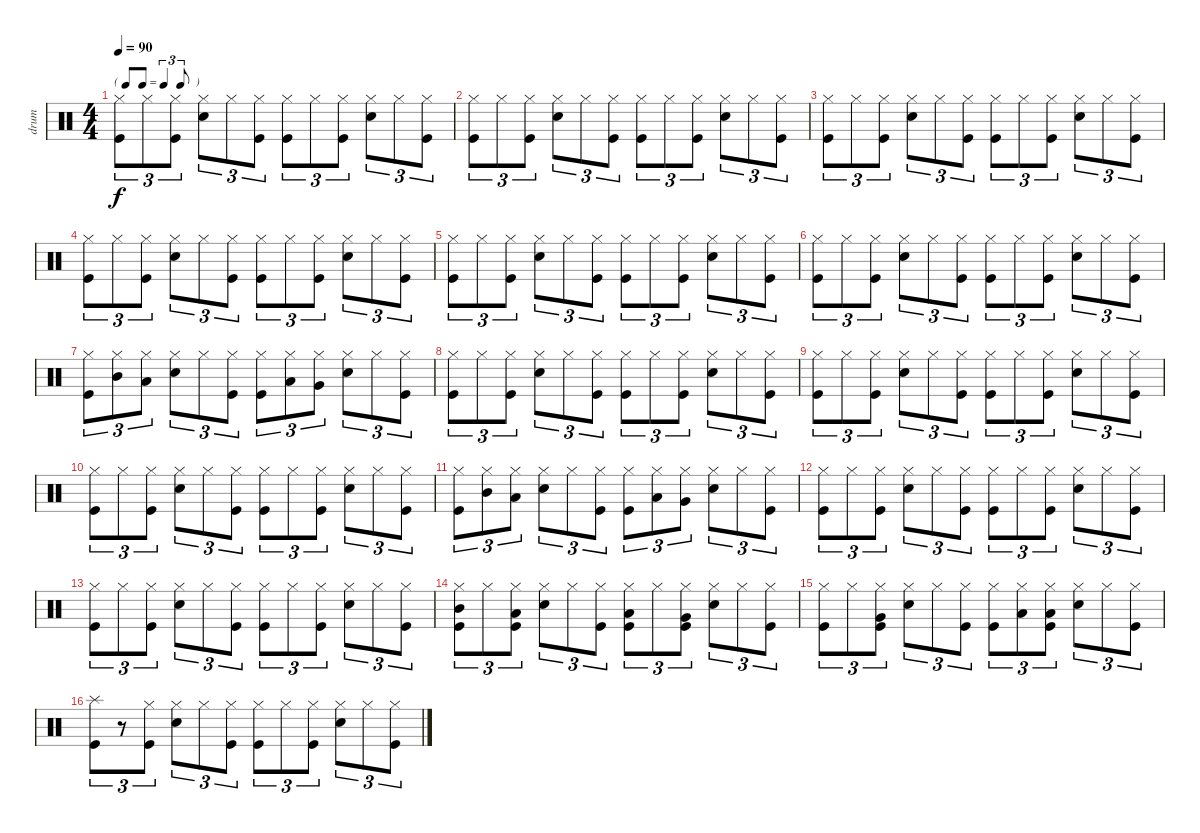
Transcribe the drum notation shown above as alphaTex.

\track ("drum" "drum") {instrument percussion}
\staff {score}
\articulation defaults
\ts (4 4)
\tf triplet8th
\tempo 90
\clef neutral
\ks c
("Hi-Hat (closed)" "Kick (hit)").8{tu (3 2) dy f} "Hi-Hat (closed)".8{tu (3 2)} ("Hi-Hat (closed)" "Kick (hit)").8{tu (3 2)} ("Hi-Hat (closed)" "Snare (hit) 2").8{tu (3 2)} "Hi-Hat (closed)".8{tu (3 2)} ("Hi-Hat (closed)" "Kick (hit)").8{tu (3 2)} ("Hi-Hat (closed)" "Kick (hit)").8{tu (3 2)} "Hi-Hat (closed)".8{tu (3 2)} ("Hi-Hat (closed)" "Kick (hit)").8{tu (3 2)} ("Hi-Hat (closed)" "Snare (hit) 2").8{tu (3 2)} "Hi-Hat (closed)".8{tu (3 2)} ("Hi-Hat (closed)" "Kick (hit)").8{tu (3 2)} |
("Hi-Hat (closed)" "Kick (hit)").8{tu (3 2)} "Hi-Hat (closed)".8{tu (3 2)} ("Hi-Hat (closed)" "Kick (hit)").8{tu (3 2)} ("Hi-Hat (closed)" "Snare (hit) 2").8{tu (3 2)} "Hi-Hat (closed)".8{tu (3 2)} ("Hi-Hat (closed)" "Kick (hit)").8{tu (3 2)} ("Hi-Hat (closed)" "Kick (hit)").8{tu (3 2)} "Hi-Hat (closed)".8{tu (3 2)} ("Hi-Hat (closed)" "Kick (hit)").8{tu (3 2)} ("Hi-Hat (closed)" "Snare (hit) 2").8{tu (3 2)} "Hi-Hat (closed)".8{tu (3 2)} ("Hi-Hat (closed)" "Kick (hit)").8{tu (3 2)} |
("Hi-Hat (closed)" "Kick (hit)").8{tu (3 2)} "Hi-Hat (closed)".8{tu (3 2)} ("Hi-Hat (closed)" "Kick (hit)").8{tu (3 2)} ("Hi-Hat (closed)" "Snare (hit) 2").8{tu (3 2)} "Hi-Hat (closed)".8{tu (3 2)} ("Hi-Hat (closed)" "Kick (hit)").8{tu (3 2)} ("Hi-Hat (closed)" "Kick (hit)").8{tu (3 2)} "Hi-Hat (closed)".8{tu (3 2)} ("Hi-Hat (closed)" "Kick (hit)").8{tu (3 2)} ("Hi-Hat (closed)" "Snare (hit) 2").8{tu (3 2)} "Hi-Hat (closed)".8{tu (3 2)} ("Hi-Hat (closed)" "Kick (hit)").8{tu (3 2)} |
("Hi-Hat (closed)" "Kick (hit)").8{tu (3 2)} "Hi-Hat (closed)".8{tu (3 2)} ("Hi-Hat (closed)" "Kick (hit)").8{tu (3 2)} ("Hi-Hat (closed)" "Snare (hit) 2").8{tu (3 2)} "Hi-Hat (closed)".8{tu (3 2)} ("Hi-Hat (closed)" "Kick (hit)").8{tu (3 2)} ("Hi-Hat (closed)" "Kick (hit)").8{tu (3 2)} "Hi-Hat (closed)".8{tu (3 2)} ("Hi-Hat (closed)" "Kick (hit)").8{tu (3 2)} ("Hi-Hat (closed)" "Snare (hit) 2").8{tu (3 2)} "Hi-Hat (closed)".8{tu (3 2)} ("Hi-Hat (closed)" "Kick (hit)").8{tu (3 2)} |
("Hi-Hat (closed)" "Kick (hit)").8{tu (3 2)} "Hi-Hat (closed)".8{tu (3 2)} ("Hi-Hat (closed)" "Kick (hit)").8{tu (3 2)} ("Hi-Hat (closed)" "Snare (hit) 2").8{tu (3 2)} "Hi-Hat (closed)".8{tu (3 2)} ("Hi-Hat (closed)" "Kick (hit)").8{tu (3 2)} ("Hi-Hat (closed)" "Kick (hit)").8{tu (3 2)} "Hi-Hat (closed)".8{tu (3 2)} ("Hi-Hat (closed)" "Kick (hit)").8{tu (3 2)} ("Hi-Hat (closed)" "Snare (hit) 2").8{tu (3 2)} "Hi-Hat (closed)".8{tu (3 2)} ("Hi-Hat (closed)" "Kick (hit)").8{tu (3 2)} |
("Hi-Hat (closed)" "Kick (hit)").8{tu (3 2)} "Hi-Hat (closed)".8{tu (3 2)} ("Hi-Hat (closed)" "Kick (hit)").8{tu (3 2)} ("Hi-Hat (closed)" "Snare (hit) 2").8{tu (3 2)} "Hi-Hat (closed)".8{tu (3 2)} ("Hi-Hat (closed)" "Kick (hit)").8{tu (3 2)} ("Hi-Hat (closed)" "Kick (hit)").8{tu (3 2)} "Hi-Hat (closed)".8{tu (3 2)} ("Hi-Hat (closed)" "Kick (hit)").8{tu (3 2)} ("Hi-Hat (closed)" "Snare (hit) 2").8{tu (3 2)} "Hi-Hat (closed)".8{tu (3 2)} ("Hi-Hat (closed)" "Kick (hit)").8{tu (3 2)} |
("Hi-Hat (closed)" "Kick (hit)").8{tu (3 2)} ("Hi-Hat (closed)" "Mid Tom (hit)").8{tu (3 2)} ("Hi-Hat (closed)" "Low Tom (hit)").8{tu (3 2)} ("Hi-Hat (closed)" "Snare (hit) 2").8{tu (3 2)} "Hi-Hat (closed)".8{tu (3 2)} ("Hi-Hat (closed)" "Kick (hit)").8{tu (3 2)} ("Hi-Hat (closed)" "Kick (hit)").8{tu (3 2)} ("Hi-Hat (closed)" "Low Tom (hit)").8{tu (3 2)} ("Hi-Hat (closed)" "Very Low Tom (hit)").8{tu (3 2)} ("Hi-Hat (closed)" "Snare (hit) 2").8{tu (3 2)} "Hi-Hat (closed)".8{tu (3 2)} ("Hi-Hat (closed)" "Kick (hit)").8{tu (3 2)} |
("Hi-Hat (closed)" "Kick (hit)").8{tu (3 2)} "Hi-Hat (closed)".8{tu (3 2)} ("Hi-Hat (closed)" "Kick (hit)").8{tu (3 2)} ("Hi-Hat (closed)" "Snare (hit) 2").8{tu (3 2)} "Hi-Hat (closed)".8{tu (3 2)} ("Hi-Hat (closed)" "Kick (hit)").8{tu (3 2)} ("Hi-Hat (closed)" "Kick (hit)").8{tu (3 2)} "Hi-Hat (closed)".8{tu (3 2)} ("Hi-Hat (closed)" "Kick (hit)").8{tu (3 2)} ("Hi-Hat (closed)" "Snare (hit) 2").8{tu (3 2)} "Hi-Hat (closed)".8{tu (3 2)} ("Hi-Hat (closed)" "Kick (hit)").8{tu (3 2)} |
("Hi-Hat (closed)" "Kick (hit)").8{tu (3 2)} "Hi-Hat (closed)".8{tu (3 2)} ("Hi-Hat (closed)" "Kick (hit)").8{tu (3 2)} ("Hi-Hat (closed)" "Snare (hit) 2").8{tu (3 2)} "Hi-Hat (closed)".8{tu (3 2)} ("Hi-Hat (closed)" "Kick (hit)").8{tu (3 2)} ("Hi-Hat (closed)" "Kick (hit)").8{tu (3 2)} "Hi-Hat (closed)".8{tu (3 2)} ("Hi-Hat (closed)" "Kick (hit)").8{tu (3 2)} ("Hi-Hat (closed)" "Snare (hit) 2").8{tu (3 2)} "Hi-Hat (closed)".8{tu (3 2)} ("Hi-Hat (closed)" "Kick (hit)").8{tu (3 2)} |
("Hi-Hat (closed)" "Kick (hit)").8{tu (3 2)} "Hi-Hat (closed)".8{tu (3 2)} ("Hi-Hat (closed)" "Kick (hit)").8{tu (3 2)} ("Hi-Hat (closed)" "Snare (hit) 2").8{tu (3 2)} "Hi-Hat (closed)".8{tu (3 2)} ("Hi-Hat (closed)" "Kick (hit)").8{tu (3 2)} ("Hi-Hat (closed)" "Kick (hit)").8{tu (3 2)} "Hi-Hat (closed)".8{tu (3 2)} ("Hi-Hat (closed)" "Kick (hit)").8{tu (3 2)} ("Hi-Hat (closed)" "Snare (hit) 2").8{tu (3 2)} "Hi-Hat (closed)".8{tu (3 2)} ("Hi-Hat (closed)" "Kick (hit)").8{tu (3 2)} |
("Hi-Hat (closed)" "Kick (hit)").8{tu (3 2)} ("Hi-Hat (closed)" "Mid Tom (hit)").8{tu (3 2)} ("Hi-Hat (closed)" "Low Tom (hit)").8{tu (3 2)} ("Hi-Hat (closed)" "Snare (hit) 2").8{tu (3 2)} "Hi-Hat (closed)".8{tu (3 2)} ("Hi-Hat (closed)" "Kick (hit)").8{tu (3 2)} ("Hi-Hat (closed)" "Kick (hit)").8{tu (3 2)} ("Hi-Hat (closed)" "Low Tom (hit)").8{tu (3 2)} ("Hi-Hat (closed)" "Very Low Tom (hit)").8{tu (3 2)} ("Hi-Hat (closed)" "Snare (hit) 2").8{tu (3 2)} "Hi-Hat (closed)".8{tu (3 2)} ("Hi-Hat (closed)" "Kick (hit)").8{tu (3 2)} |
("Hi-Hat (closed)" "Kick (hit)").8{tu (3 2)} "Hi-Hat (closed)".8{tu (3 2)} ("Hi-Hat (closed)" "Kick (hit)").8{tu (3 2)} ("Hi-Hat (closed)" "Snare (hit) 2").8{tu (3 2)} "Hi-Hat (closed)".8{tu (3 2)} ("Hi-Hat (closed)" "Kick (hit)").8{tu (3 2)} ("Hi-Hat (closed)" "Kick (hit)").8{tu (3 2)} "Hi-Hat (closed)".8{tu (3 2)} ("Hi-Hat (closed)" "Kick (hit)").8{tu (3 2)} ("Hi-Hat (closed)" "Snare (hit) 2").8{tu (3 2)} "Hi-Hat (closed)".8{tu (3 2)} ("Hi-Hat (closed)" "Kick (hit)").8{tu (3 2)} |
("Hi-Hat (closed)" "Kick (hit)").8{tu (3 2)} "Hi-Hat (closed)".8{tu (3 2)} ("Hi-Hat (closed)" "Kick (hit)").8{tu (3 2)} ("Hi-Hat (closed)" "Snare (hit) 2").8{tu (3 2)} "Hi-Hat (closed)".8{tu (3 2)} ("Hi-Hat (closed)" "Kick (hit)").8{tu (3 2)} ("Hi-Hat (closed)" "Kick (hit)").8{tu (3 2)} "Hi-Hat (closed)".8{tu (3 2)} ("Hi-Hat (closed)" "Kick (hit)").8{tu (3 2)} ("Hi-Hat (closed)" "Snare (hit) 2").8{tu (3 2)} "Hi-Hat (closed)".8{tu (3 2)} ("Hi-Hat (closed)" "Kick (hit)").8{tu (3 2)} |
("Hi-Hat (closed)" "Mid Tom (hit)" "Kick (hit)").8{tu (3 2)} "Hi-Hat (closed)".8{tu (3 2)} ("Hi-Hat (closed)" "Low Tom (hit)" "Kick (hit)").8{tu (3 2)} ("Hi-Hat (closed)" "Snare (hit) 2").8{tu (3 2)} "Hi-Hat (closed)".8{tu (3 2)} ("Hi-Hat (closed)" "Kick (hit)").8{tu (3 2)} ("Hi-Hat (closed)" "Low Tom (hit)" "Kick (hit)").8{tu (3 2)} "Hi-Hat (closed)".8{tu (3 2)} ("Hi-Hat (closed)" "Very Low Tom (hit)" "Kick (hit)").8{tu (3 2)} ("Hi-Hat (closed)" "Snare (hit) 2").8{tu (3 2)} "Hi-Hat (closed)".8{tu (3 2)} ("Hi-Hat (closed)" "Kick (hit)").8{tu (3 2)} |
("Hi-Hat (closed)" "Kick (hit)").8{tu (3 2)} "Hi-Hat (closed)".8{tu (3 2)} ("Hi-Hat (closed)" "Very Low Tom (hit)" "Kick (hit)").8{tu (3 2)} ("Hi-Hat (closed)" "Snare (hit) 2").8{tu (3 2)} "Hi-Hat (closed)".8{tu (3 2)} ("Hi-Hat (closed)" "Kick (hit)").8{tu (3 2)} ("Hi-Hat (closed)" "Kick (hit)").8{tu (3 2)} ("Hi-Hat (closed)" "Low Floor Tom (hit)").8{tu (3 2)} ("Hi-Hat (closed)" "Low Tom (hit)" "Kick (hit)").8{tu (3 2)} ("Hi-Hat (closed)" "Snare (hit) 2").8{tu (3 2)} "Hi-Hat (closed)".8{tu (3 2)} ("Hi-Hat (closed)" "Kick (hit)").8{tu (3 2)} |
("Splash (hit)" "Kick (hit)").8{tu (3 2)} r.8{tu (3 2)} ("Hi-Hat (closed)" "Kick (hit)").8{tu (3 2)} ("Hi-Hat (closed)" "Snare (hit) 2").8{tu (3 2)} "Hi-Hat (closed)".8{tu (3 2)} ("Hi-Hat (closed)" "Kick (hit)").8{tu (3 2)} ("Hi-Hat (closed)" "Kick (hit)").8{tu (3 2)} "Hi-Hat (closed)".8{tu (3 2)} ("Hi-Hat (closed)" "Kick (hit)").8{tu (3 2)} ("Hi-Hat (closed)" "Snare (hit) 2").8{tu (3 2)} "Hi-Hat (closed)".8{tu (3 2)} ("Hi-Hat (closed)" "Kick (hit)").8{tu (3 2)}
